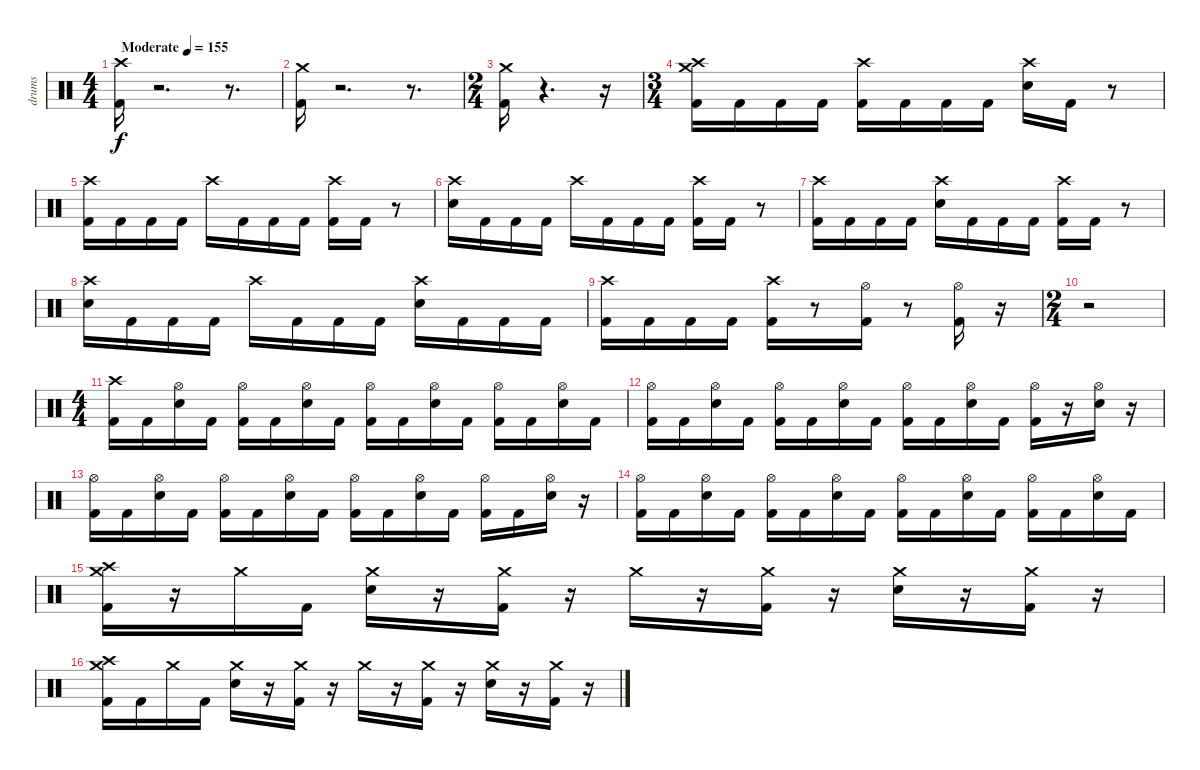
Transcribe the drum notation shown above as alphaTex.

\track ("drums" "drums") {instrument percussion}
\staff {score}
\articulation defaults
\ts (4 4)
\tempo (155 "Moderate")
\clef neutral
\ks c
("Kick (hit) 2" "Crash high (hit)").16{dy f} r.2{d} r.8{d} |
("Kick (hit) 2" "Crash medium (hit)").16 r.2{d} r.8{d} |
\ts (2 4)
("Kick (hit) 2" "Crash medium (hit)").16 r.4{d} r.16 |
\ts (3 4)
("Kick (hit) 2" "Crash high (hit)" "Crash medium (hit)").16 "Kick (hit) 2".16 "Kick (hit) 2".16 "Kick (hit) 2".16 ("Kick (hit) 2" "Crash high (hit)").16 "Kick (hit) 2".16 "Kick (hit) 2".16 "Kick (hit) 2".16 ("Snare (hit) 2" "Crash high (hit)").16 "Kick (hit) 2".16 r.8 |
("Kick (hit) 2" "Crash high (hit)").16 "Kick (hit) 2".16 "Kick (hit) 2".16 "Kick (hit) 2".16 "Crash high (hit)".16 "Kick (hit) 2".16 "Kick (hit) 2".16 "Kick (hit) 2".16 ("Kick (hit) 2" "Crash high (hit)").16 "Kick (hit) 2".16 r.8 |
("Snare (hit) 2" "Crash high (hit)").16 "Kick (hit) 2".16 "Kick (hit) 2".16 "Kick (hit) 2".16 "Crash high (hit)".16 "Kick (hit) 2".16 "Kick (hit) 2".16 "Kick (hit) 2".16 ("Kick (hit) 2" "Crash high (hit)").16 "Kick (hit) 2".16 r.8 |
("Kick (hit) 2" "Crash high (hit)").16 "Kick (hit) 2".16 "Kick (hit) 2".16 "Kick (hit) 2".16 ("Snare (hit) 2" "Crash high (hit)").16 "Kick (hit) 2".16 "Kick (hit) 2".16 "Kick (hit) 2".16 ("Kick (hit) 2" "Crash high (hit)").16 "Kick (hit) 2".16 r.8 |
("Snare (hit) 2" "Crash high (hit)").16 "Kick (hit) 2".16 "Kick (hit) 2".16 "Kick (hit) 2".16 "Crash high (hit)".16 "Kick (hit) 2".16 "Kick (hit) 2".16 "Kick (hit) 2".16 ("Snare (hit) 2" "Crash high (hit)").16 "Kick (hit) 2".16 "Kick (hit) 2".16 "Kick (hit) 2".16 |
("Kick (hit) 2" "Crash high (hit)").16 "Kick (hit) 2".16 "Kick (hit) 2".16 "Kick (hit) 2".16 ("Kick (hit) 2" "Crash high (hit)").16 r.8 ("Kick (hit) 2" "Hi-Hat (open)").16 r.8 ("Kick (hit) 2" "Hi-Hat (open)").16 r.16 |
\ts (2 4)
r.2 |
\ts (4 4)
("Kick (hit) 2" "Crash high (hit)").16 "Kick (hit) 2".16 ("Snare (hit) 2" "Hi-Hat (open)").16 "Kick (hit) 2".16 ("Kick (hit) 2" "Hi-Hat (open)").16 "Kick (hit) 2".16 ("Snare (hit) 2" "Hi-Hat (open)").16 "Kick (hit) 2".16 ("Kick (hit) 2" "Hi-Hat (open)").16 "Kick (hit) 2".16 ("Snare (hit) 2" "Hi-Hat (open)").16 "Kick (hit) 2".16 ("Kick (hit) 2" "Hi-Hat (open)").16 "Kick (hit) 2".16 ("Snare (hit) 2" "Hi-Hat (open)").16 "Kick (hit) 2".16 |
("Kick (hit) 2" "Hi-Hat (open)").16 "Kick (hit) 2".16 ("Snare (hit) 2" "Hi-Hat (open)").16 "Kick (hit) 2".16 ("Kick (hit) 2" "Hi-Hat (open)").16 "Kick (hit) 2".16 ("Snare (hit) 2" "Hi-Hat (open)").16 "Kick (hit) 2".16 ("Kick (hit) 2" "Hi-Hat (open)").16 "Kick (hit) 2".16 ("Snare (hit) 2" "Hi-Hat (open)").16 "Kick (hit) 2".16 ("Kick (hit) 2" "Hi-Hat (open)").16 r.16 ("Snare (hit) 2" "Hi-Hat (open)").16 r.16 |
("Kick (hit) 2" "Hi-Hat (open)").16 "Kick (hit) 2".16 ("Snare (hit) 2" "Hi-Hat (open)").16 "Kick (hit) 2".16 ("Kick (hit) 2" "Hi-Hat (open)").16 "Kick (hit) 2".16 ("Snare (hit) 2" "Hi-Hat (open)").16 "Kick (hit) 2".16 ("Kick (hit) 2" "Hi-Hat (open)").16 "Kick (hit) 2".16 ("Snare (hit) 2" "Hi-Hat (open)").16 "Kick (hit) 2".16 ("Kick (hit) 2" "Hi-Hat (open)").16 "Kick (hit) 2".16 ("Snare (hit) 2" "Hi-Hat (open)").16 r.16 |
("Kick (hit) 2" "Hi-Hat (open)").16 "Kick (hit) 2".16 ("Snare (hit) 2" "Hi-Hat (open)").16 "Kick (hit) 2".16 ("Kick (hit) 2" "Hi-Hat (open)").16 "Kick (hit) 2".16 ("Snare (hit) 2" "Hi-Hat (open)").16 "Kick (hit) 2".16 ("Kick (hit) 2" "Hi-Hat (open)").16 "Kick (hit) 2".16 ("Snare (hit) 2" "Hi-Hat (open)").16 "Kick (hit) 2".16 ("Kick (hit) 2" "Hi-Hat (open)").16 "Kick (hit) 2".16 ("Snare (hit) 2" "Hi-Hat (open)").16 "Kick (hit) 2".16 |
("Kick (hit) 2" "Crash high (hit)" "Crash medium (hit)").16 r.16 "Crash medium (hit)".16 "Kick (hit) 2".16 ("Snare (hit) 2" "Crash medium (hit)").16 r.16 ("Kick (hit) 2" "Crash medium (hit)").16 r.16 "Crash medium (hit)".16 r.16 ("Kick (hit) 2" "Crash medium (hit)").16 r.16 ("Snare (hit) 2" "Crash medium (hit)").16 r.16 ("Kick (hit) 2" "Crash medium (hit)").16 r.16 |
("Kick (hit) 2" "Crash high (hit)" "Crash medium (hit)").16 "Kick (hit) 2".16 "Crash medium (hit)".16 "Kick (hit) 2".16 ("Snare (hit) 2" "Crash medium (hit)").16 r.16 ("Kick (hit) 2" "Crash medium (hit)").16 r.16 "Crash medium (hit)".16 r.16 ("Kick (hit) 2" "Crash medium (hit)").16 r.16 ("Snare (hit) 2" "Crash medium (hit)").16 r.16 ("Kick (hit) 2" "Crash medium (hit)").16 r.16
